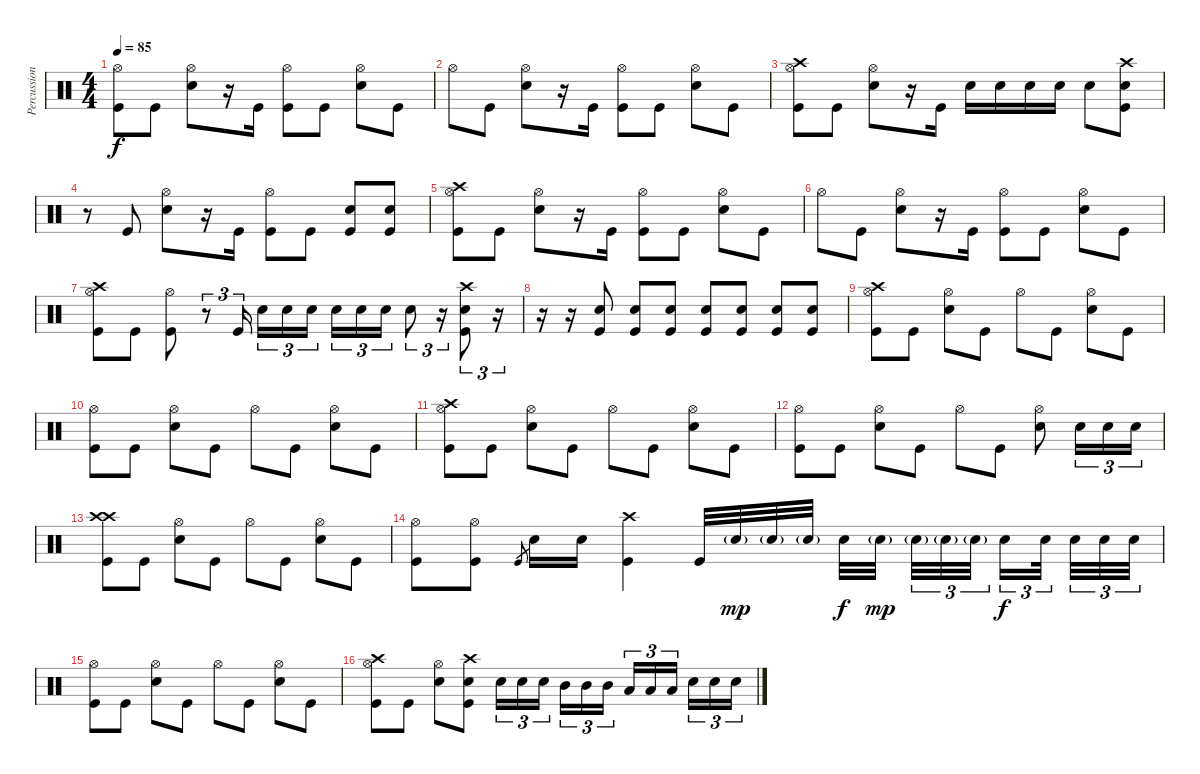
\track ("Percussions" "Percussion") {instrument percussion}
\staff {score}
\articulation defaults
\ts (4 4)
\tempo 85
\clef neutral
\ks c
("Hi-Hat (open)" "Kick (hit)").8{dy f} "Kick (hit)".8 ("Hi-Hat (open)" "Snare (hit) 2").8 r.16 "Kick (hit)".16 ("Hi-Hat (open)" "Kick (hit)").8 "Kick (hit)".8 ("Hi-Hat (open)" "Snare (hit) 2").8 "Kick (hit)".8 |
"Hi-Hat (open)".8 "Kick (hit)".8 ("Hi-Hat (open)" "Snare (hit) 2").8 r.16 "Kick (hit)".16 ("Hi-Hat (open)" "Kick (hit)").8 "Kick (hit)".8 ("Hi-Hat (open)" "Snare (hit) 2").8 "Kick (hit)".8 |
("Hi-Hat (open)" "Kick (hit)" "Crash high (hit)").8 "Kick (hit)".8 ("Hi-Hat (open)" "Snare (hit) 2").8 r.16 "Kick (hit)".16 "Snare (hit) 2".16 "Snare (hit) 2".16 "Snare (hit) 2".16 "Snare (hit) 2".16 "Snare (hit) 2".8 ("Kick (hit)" "Snare (hit) 2" "Crash high (hit)").8 |
r.8 "Kick (hit)".8 ("Hi-Hat (open)" "Snare (hit) 2").8 r.16 "Kick (hit)".16 ("Hi-Hat (open)" "Kick (hit)").8 "Kick (hit)".8 ("Kick (hit)" "Snare (hit) 2").8 ("Kick (hit)" "Snare (hit) 2").8 |
("Hi-Hat (open)" "Kick (hit)" "Crash high (hit)").8 "Kick (hit)".8 ("Hi-Hat (open)" "Snare (hit) 2").8 r.16 "Kick (hit)".16 ("Hi-Hat (open)" "Kick (hit)").8 "Kick (hit)".8 ("Hi-Hat (open)" "Snare (hit) 2").8 "Kick (hit)".8 |
"Hi-Hat (open)".8 "Kick (hit)".8 ("Hi-Hat (open)" "Snare (hit) 2").8 r.16 "Kick (hit)".16 ("Hi-Hat (open)" "Kick (hit)").8 "Kick (hit)".8 ("Hi-Hat (open)" "Snare (hit) 2").8 "Kick (hit)".8 |
("Hi-Hat (open)" "Kick (hit)" "Crash high (hit)").8 "Kick (hit)".8 ("Hi-Hat (open)" "Kick (hit)").8 r.8{tu (3 2)} "Kick (hit)".16{tu (3 2)} "Snare (hit) 2".16{tu (3 2)} "Snare (hit) 2".16{tu (3 2)} "Snare (hit) 2".16{tu (3 2)} "Snare (hit) 2".16{tu (3 2)} "Snare (hit) 2".16{tu (3 2)} "Snare (hit) 2".16{tu (3 2)} "Snare (hit) 2".8{tu (3 2)} r.16{tu (3 2)} ("Kick (hit)" "Snare (hit) 2" "Crash high (hit)").8{tu (3 2)} r.16{tu (3 2)} |
r.16 r.16{volume 4} ("Kick (hit)" "Snare (hit) 2").8{volume 15} ("Kick (hit)" "Snare (hit) 2").8 ("Kick (hit)" "Snare (hit) 2").8 ("Kick (hit)" "Snare (hit) 2").8 ("Kick (hit)" "Snare (hit) 2").8 ("Kick (hit)" "Snare (hit) 2").8 ("Kick (hit)" "Snare (hit) 2").8 |
("Hi-Hat (open)" "Kick (hit)" "Crash high (hit)").8{volume 13} "Kick (hit)".8 ("Hi-Hat (open)" "Snare (hit) 2").8 "Kick (hit)".8 "Hi-Hat (open)".8 "Kick (hit)".8 ("Hi-Hat (open)" "Snare (hit) 2").8 "Kick (hit)".8 |
("Hi-Hat (open)" "Kick (hit)").8 "Kick (hit)".8 ("Hi-Hat (open)" "Snare (hit) 2").8 "Kick (hit)".8 "Hi-Hat (open)".8 "Kick (hit)".8 ("Hi-Hat (open)" "Snare (hit) 2").8 "Kick (hit)".8 |
("Hi-Hat (open)" "Kick (hit)" "Crash high (hit)").8 "Kick (hit)".8 ("Hi-Hat (open)" "Snare (hit) 2").8 "Kick (hit)".8 "Hi-Hat (open)".8 "Kick (hit)".8 ("Hi-Hat (open)" "Snare (hit) 2").8 "Kick (hit)".8 |
("Hi-Hat (open)" "Kick (hit)").8 "Kick (hit)".8 ("Hi-Hat (open)" "Snare (hit) 2").8 "Kick (hit)".8 "Hi-Hat (open)".8 "Kick (hit)".8 ("Hi-Hat (open)" "Snare (hit) 2").8 "Snare (hit) 2".16{tu (3 2)} "Snare (hit) 2".16{tu (3 2)} "Snare (hit) 2".16{tu (3 2)} |
("Crash high (hit)" "Kick (hit)" "Crash high (hit)").8 "Kick (hit)".8 ("Hi-Hat (open)" "Snare (hit) 2").8 "Kick (hit)".8 "Hi-Hat (open)".8 "Kick (hit)".8 ("Hi-Hat (open)" "Snare (hit) 2").8 "Kick (hit)".8 |
("Hi-Hat (open)" "Kick (hit)").8 ("Hi-Hat (open)" "Kick (hit)").8 "Kick (hit)".8{gr} "Snare (hit) 2".16 "Snare (hit) 2".16 ("Kick (hit)" "Crash high (hit)").4 "Kick (hit)".32 "Snare (hit) 2"{g}.32{dy mp} "Snare (hit) 2"{g}.32 "Snare (hit) 2"{g}.32 "Snare (hit) 2".32{dy f} "Snare (hit) 2"{g}.32{dy mp} "Snare (hit) 2"{g}.32{tu (3 2)} "Snare (hit) 2"{g}.32{tu (3 2)} "Snare (hit) 2"{g}.32{tu (3 2)} "Snare (hit) 2".16{tu (3 2) dy f} "Snare (hit) 2".32{tu (3 2)} "Snare (hit) 2".32{tu (3 2)} "Snare (hit) 2".32{tu (3 2)} "Snare (hit) 2".32{tu (3 2)} |
("Hi-Hat (open)" "Kick (hit)").8 "Kick (hit)".8 ("Hi-Hat (open)" "Snare (hit) 2").8 "Kick (hit)".8 "Hi-Hat (open)".8 "Kick (hit)".8 ("Hi-Hat (open)" "Snare (hit) 2").8 "Kick (hit)".8 |
("Hi-Hat (open)" "Kick (hit)" "Crash high (hit)").8 "Kick (hit)".8 ("Hi-Hat (open)" "Snare (hit) 2").8 ("Kick (hit)" "Snare (hit) 2" "Crash high (hit)").8 "Snare (hit) 2".16{tu (3 2)} "Snare (hit) 2".16{tu (3 2)} "Snare (hit) 2".16{tu (3 2)} "Mid Tom (hit)".16{tu (3 2)} "Mid Tom (hit)".16{tu (3 2)} "Mid Tom (hit)".16{tu (3 2)} "Low Tom (hit)".16{tu (3 2)} "Low Tom (hit)".16{tu (3 2)} "Low Tom (hit)".16{tu (3 2)} "Snare (hit) 2".16{tu (3 2)} "Snare (hit) 2".16{tu (3 2)} "Snare (hit) 2".16{tu (3 2)}
